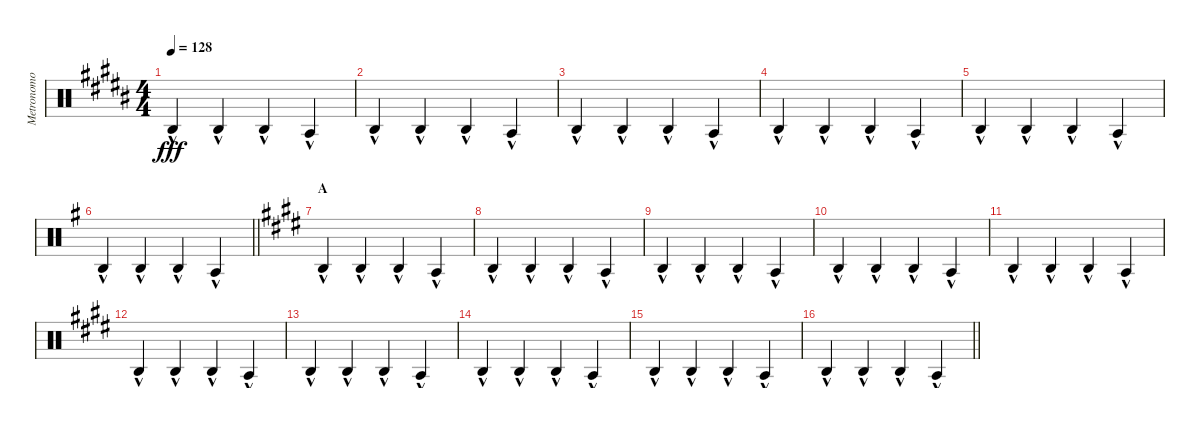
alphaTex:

\track ("Metronomo" "Metronomo") {mute instrument percussion}
\staff {score}
\articulation defaults
\ts (4 4)
\tempo 128
\clef neutral
\ks b "Agogo high (hit)"{hac}.4{dy fff} "Agogo high (hit)"{hac}.4 "Agogo high (hit)"{hac}.4 "Agogo tow (hit)"{hac}.4
|
"Agogo high (hit)"{hac}.4 "Agogo high (hit)"{hac}.4 "Agogo high (hit)"{hac}.4 "Agogo tow (hit)"{hac}.4 |
"Agogo high (hit)"{hac}.4 "Agogo high (hit)"{hac}.4 "Agogo high (hit)"{hac}.4 "Agogo tow (hit)"{hac}.4 |
"Agogo high (hit)"{hac}.4 "Agogo high (hit)"{hac}.4 "Agogo high (hit)"{hac}.4 "Agogo tow (hit)"{hac}.4 |
"Agogo high (hit)"{hac}.4 "Agogo high (hit)"{hac}.4 "Agogo high (hit)"{hac}.4 "Agogo tow (hit)"{hac}.4 |
\barLineRight lightlight
\ks eminor "Agogo high (hit)"{hac}.4 "Agogo high (hit)"{hac}.4 "Agogo high (hit)"{hac}.4 "Agogo tow (hit)"{hac}.4
|
\section ("" "A")
\ks e "Agogo high (hit)"{hac}.4 "Agogo high (hit)"{hac}.4 "Agogo high (hit)"{hac}.4 "Agogo tow (hit)"{hac}.4
|
"Agogo high (hit)"{hac}.4 "Agogo high (hit)"{hac}.4 "Agogo high (hit)"{hac}.4 "Agogo tow (hit)"{hac}.4 |
"Agogo high (hit)"{hac}.4 "Agogo high (hit)"{hac}.4 "Agogo high (hit)"{hac}.4 "Agogo tow (hit)"{hac}.4 |
"Agogo high (hit)"{hac}.4 "Agogo high (hit)"{hac}.4 "Agogo high (hit)"{hac}.4 "Agogo tow (hit)"{hac}.4 |
"Agogo high (hit)"{hac}.4 "Agogo high (hit)"{hac}.4 "Agogo high (hit)"{hac}.4 "Agogo tow (hit)"{hac}.4 |
"Agogo high (hit)"{hac}.4 "Agogo high (hit)"{hac}.4 "Agogo high (hit)"{hac}.4 "Agogo tow (hit)"{hac}.4 |
"Agogo high (hit)"{hac}.4 "Agogo high (hit)"{hac}.4 "Agogo high (hit)"{hac}.4 "Agogo tow (hit)"{hac}.4 |
"Agogo high (hit)"{hac}.4 "Agogo high (hit)"{hac}.4 "Agogo high (hit)"{hac}.4 "Agogo tow (hit)"{hac}.4 |
"Agogo high (hit)"{hac}.4 "Agogo high (hit)"{hac}.4 "Agogo high (hit)"{hac}.4 "Agogo tow (hit)"{hac}.4 |
\barLineRight lightlight "Agogo high (hit)"{hac}.4 "Agogo high (hit)"{hac}.4 "Agogo high (hit)"{hac}.4 "Agogo tow (hit)"{hac}.4
